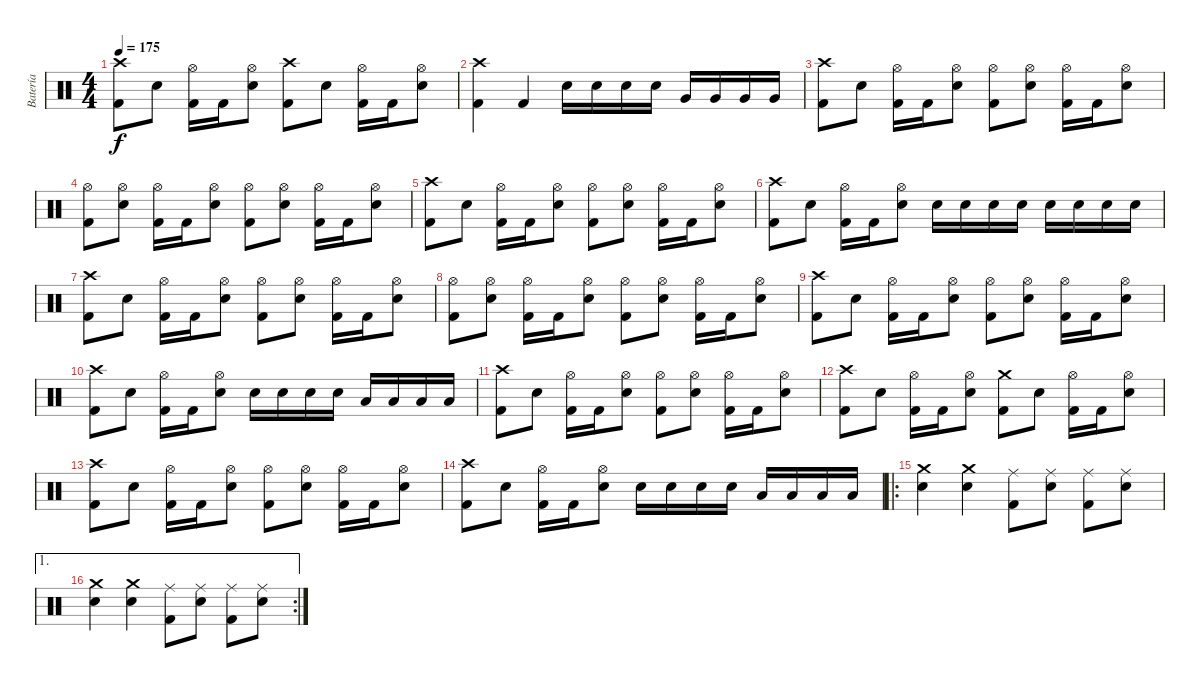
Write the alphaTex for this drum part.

\track ("Batería" "Batería") {instrument percussion}
\staff {score}
\articulation defaults
\ts (4 4)
\tempo 175
\clef neutral
\ks c
("Crash high (hit)" "Kick (hit) 2").8{dy f} "Electric Snare (hit)".8 ("Hi-Hat (open)" "Kick (hit) 2").16 "Kick (hit) 2".16 ("Hi-Hat (open)" "Electric Snare (hit)").8 ("Crash high (hit)" "Kick (hit) 2").8 "Electric Snare (hit)".8 ("Hi-Hat (open)" "Kick (hit) 2").16 "Kick (hit) 2".16 ("Hi-Hat (open)" "Electric Snare (hit)").8 |
("Crash high (hit)" "Kick (hit) 2").4 "Kick (hit) 2".4 "Electric Snare (hit)".16 "Electric Snare (hit)".16 "Electric Snare (hit)".16 "Electric Snare (hit)".16 "Very Low Tom (hit)".16 "Very Low Tom (hit)".16 "Very Low Tom (hit)".16 "Very Low Tom (hit)".16 |
("Crash high (hit)" "Kick (hit) 2").8 "Electric Snare (hit)".8 ("Hi-Hat (open)" "Kick (hit) 2").16 "Kick (hit) 2".16 ("Hi-Hat (open)" "Electric Snare (hit)").8 ("Hi-Hat (open)" "Kick (hit) 2").8 ("Hi-Hat (open)" "Electric Snare (hit)").8 ("Hi-Hat (open)" "Kick (hit) 2").16 "Kick (hit) 2".16 ("Hi-Hat (open)" "Electric Snare (hit)").8 |
("Hi-Hat (open)" "Kick (hit) 2").8 ("Hi-Hat (open)" "Electric Snare (hit)").8 ("Hi-Hat (open)" "Kick (hit) 2").16 "Kick (hit) 2".16 ("Hi-Hat (open)" "Electric Snare (hit)").8 ("Hi-Hat (open)" "Kick (hit) 2").8 ("Hi-Hat (open)" "Electric Snare (hit)").8 ("Hi-Hat (open)" "Kick (hit) 2").16 "Kick (hit) 2".16 ("Hi-Hat (open)" "Electric Snare (hit)").8 |
("Crash high (hit)" "Kick (hit) 2").8 "Electric Snare (hit)".8 ("Hi-Hat (open)" "Kick (hit) 2").16 "Kick (hit) 2".16 ("Hi-Hat (open)" "Electric Snare (hit)").8 ("Hi-Hat (open)" "Kick (hit) 2").8 ("Hi-Hat (open)" "Electric Snare (hit)").8 ("Hi-Hat (open)" "Kick (hit) 2").16 "Kick (hit) 2".16 ("Hi-Hat (open)" "Electric Snare (hit)").8 |
("Crash high (hit)" "Kick (hit) 2").8 "Electric Snare (hit)".8 ("Hi-Hat (open)" "Kick (hit) 2").16 "Kick (hit) 2".16 ("Hi-Hat (open)" "Electric Snare (hit)").8 "Electric Snare (hit)".16 "Electric Snare (hit)".16 "Electric Snare (hit)".16 "Electric Snare (hit)".16 "Electric Snare (hit)".16 "Electric Snare (hit)".16 "Electric Snare (hit)".16 "Electric Snare (hit)".16 |
("Crash high (hit)" "Kick (hit) 2").8 "Electric Snare (hit)".8 ("Hi-Hat (open)" "Kick (hit) 2").16 "Kick (hit) 2".16 ("Hi-Hat (open)" "Electric Snare (hit)").8 ("Hi-Hat (open)" "Kick (hit) 2").8 ("Hi-Hat (open)" "Electric Snare (hit)").8 ("Hi-Hat (open)" "Kick (hit) 2").16 "Kick (hit) 2".16 ("Hi-Hat (open)" "Electric Snare (hit)").8 |
("Hi-Hat (open)" "Kick (hit) 2").8 ("Hi-Hat (open)" "Electric Snare (hit)").8 ("Hi-Hat (open)" "Kick (hit) 2").16 "Kick (hit) 2".16 ("Hi-Hat (open)" "Electric Snare (hit)").8 ("Hi-Hat (open)" "Kick (hit) 2").8 ("Hi-Hat (open)" "Electric Snare (hit)").8 ("Hi-Hat (open)" "Kick (hit) 2").16 "Kick (hit) 2".16 ("Hi-Hat (open)" "Electric Snare (hit)").8 |
("Crash high (hit)" "Kick (hit) 2").8 "Electric Snare (hit)".8 ("Hi-Hat (open)" "Kick (hit) 2").16 "Kick (hit) 2".16 ("Hi-Hat (open)" "Electric Snare (hit)").8 ("Hi-Hat (open)" "Kick (hit) 2").8 ("Hi-Hat (open)" "Electric Snare (hit)").8 ("Hi-Hat (open)" "Kick (hit) 2").16 "Kick (hit) 2".16 ("Hi-Hat (open)" "Electric Snare (hit)").8 |
("Crash high (hit)" "Kick (hit) 2").8 "Electric Snare (hit)".8 ("Hi-Hat (open)" "Kick (hit) 2").16 "Kick (hit) 2".16 ("Hi-Hat (open)" "Electric Snare (hit)").8 "Electric Snare (hit)".16 "Electric Snare (hit)".16 "Electric Snare (hit)".16 "Electric Snare (hit)".16 "Low Tom (hit)".16 "Low Tom (hit)".16 "Low Tom (hit)".16 "Low Tom (hit)".16 |
("Crash high (hit)" "Kick (hit) 2").8 "Electric Snare (hit)".8 ("Hi-Hat (open)" "Kick (hit) 2").16 "Kick (hit) 2".16 ("Hi-Hat (open)" "Electric Snare (hit)").8 ("Hi-Hat (open)" "Kick (hit) 2").8 ("Hi-Hat (open)" "Electric Snare (hit)").8 ("Hi-Hat (open)" "Kick (hit) 2").16 "Kick (hit) 2".16 ("Hi-Hat (open)" "Electric Snare (hit)").8 |
("Crash high (hit)" "Kick (hit) 2").8 "Electric Snare (hit)".8 ("Hi-Hat (open)" "Kick (hit) 2").16 "Kick (hit) 2".16 ("Hi-Hat (open)" "Electric Snare (hit)").8 ("Crash medium (hit)" "Kick (hit) 2").8 "Electric Snare (hit)".8 ("Hi-Hat (open)" "Kick (hit) 2").16 "Kick (hit) 2".16 ("Hi-Hat (open)" "Electric Snare (hit)").8 |
("Crash high (hit)" "Kick (hit) 2").8 "Electric Snare (hit)".8 ("Hi-Hat (open)" "Kick (hit) 2").16 "Kick (hit) 2".16 ("Hi-Hat (open)" "Electric Snare (hit)").8 ("Hi-Hat (open)" "Kick (hit) 2").8 ("Hi-Hat (open)" "Electric Snare (hit)").8 ("Hi-Hat (open)" "Kick (hit) 2").16 "Kick (hit) 2".16 ("Hi-Hat (open)" "Electric Snare (hit)").8 |
("Crash high (hit)" "Kick (hit) 2").8 "Electric Snare (hit)".8 ("Hi-Hat (open)" "Kick (hit) 2").16 "Kick (hit) 2".16 ("Hi-Hat (open)" "Electric Snare (hit)").8 "Electric Snare (hit)".16 "Electric Snare (hit)".16 "Electric Snare (hit)".16 "Electric Snare (hit)".16 "Low Tom (hit)".16 "Low Tom (hit)".16 "Low Tom (hit)".16 "Low Tom (hit)".16 |
\ro
("Crash medium (hit)" "Electric Snare (hit)").4 ("Crash medium (hit)" "Electric Snare (hit)").4 ("Ride (middle)" "Kick (hit) 2").8 ("Ride (middle)" "Electric Snare (hit)").8 ("Ride (middle)" "Kick (hit) 2").8 ("Ride (middle)" "Electric Snare (hit)").8 |
\ae 1
\rc 2
("Crash medium (hit)" "Electric Snare (hit)").4 ("Crash medium (hit)" "Electric Snare (hit)").4 ("Ride (middle)" "Kick (hit) 2").8 ("Ride (middle)" "Electric Snare (hit)").8 ("Ride (middle)" "Kick (hit) 2").8 ("Ride (middle)" "Electric Snare (hit)").8
